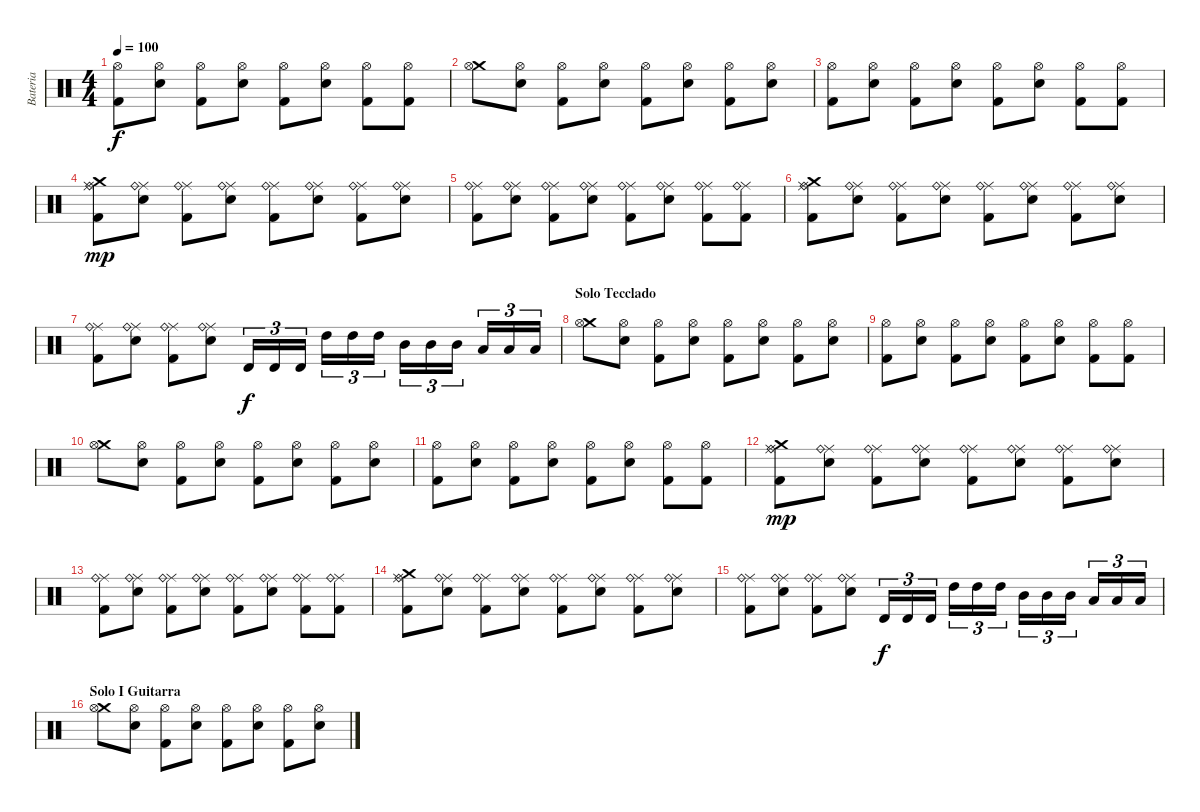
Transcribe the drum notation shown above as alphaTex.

\track ("Bateria" "Bateria") {instrument percussion}
\staff {score}
\articulation defaults
\ts (4 4)
\tempo 100
\clef neutral
\ks c
("Kick (hit) 2" "Hi-Hat (open)").8{dy f} ("Hi-Hat (open)" "Snare (hit) 2").8 ("Hi-Hat (open)" "Kick (hit) 2").8 ("Hi-Hat (open)" "Snare (hit) 2").8 ("Hi-Hat (open)" "Kick (hit) 2").8 ("Hi-Hat (open)" "Snare (hit) 2").8 ("Hi-Hat (open)" "Kick (hit) 2").8 ("Hi-Hat (open)" "Kick (hit) 2").8 |
("Crash medium (hit)" "Hi-Hat (open)").8 ("Hi-Hat (open)" "Snare (hit) 2").8 ("Hi-Hat (open)" "Kick (hit) 2").8 ("Hi-Hat (open)" "Snare (hit) 2").8 ("Hi-Hat (open)" "Kick (hit) 2").8 ("Hi-Hat (open)" "Snare (hit) 2").8 ("Hi-Hat (open)" "Kick (hit) 2").8 ("Hi-Hat (open)" "Snare (hit) 2").8 |
("Kick (hit) 2" "Hi-Hat (open)").8 ("Hi-Hat (open)" "Snare (hit) 2").8 ("Hi-Hat (open)" "Kick (hit) 2").8 ("Hi-Hat (open)" "Snare (hit) 2").8 ("Hi-Hat (open)" "Kick (hit) 2").8 ("Hi-Hat (open)" "Snare (hit) 2").8 ("Hi-Hat (open)" "Kick (hit) 2").8 ("Hi-Hat (open)" "Kick (hit) 2").8 |
("Crash medium (hit)" "Ride (middle)" "Kick (hit) 2" "Ride (bell)").8{dy mp} ("Ride (middle)" "Snare (hit) 2" "Ride (bell)").8 ("Ride (middle)" "Kick (hit) 2" "Ride (bell)").8 ("Ride (middle)" "Snare (hit) 2" "Ride (bell)").8 ("Ride (middle)" "Kick (hit) 2" "Ride (bell)").8 ("Ride (middle)" "Snare (hit) 2" "Ride (bell)").8 ("Ride (middle)" "Kick (hit) 2" "Ride (bell)").8 ("Ride (middle)" "Snare (hit) 2" "Ride (bell)").8 |
("Ride (middle)" "Kick (hit) 2" "Ride (bell)").8 ("Ride (middle)" "Snare (hit) 2" "Ride (bell)").8 ("Ride (middle)" "Kick (hit) 2" "Ride (bell)").8 ("Ride (middle)" "Snare (hit) 2" "Ride (bell)").8 ("Ride (middle)" "Kick (hit) 2" "Ride (bell)").8 ("Ride (middle)" "Snare (hit) 2" "Ride (bell)").8 ("Ride (middle)" "Kick (hit) 2" "Ride (bell)").8 ("Ride (middle)" "Kick (hit) 2" "Ride (bell)").8 |
("Crash medium (hit)" "Ride (middle)" "Kick (hit) 2" "Ride (bell)").8 ("Ride (middle)" "Snare (hit) 2" "Ride (bell)").8 ("Ride (middle)" "Kick (hit) 2" "Ride (bell)").8 ("Ride (middle)" "Snare (hit) 2" "Ride (bell)").8 ("Ride (middle)" "Kick (hit) 2" "Ride (bell)").8 ("Ride (middle)" "Snare (hit) 2" "Ride (bell)").8 ("Ride (middle)" "Kick (hit) 2" "Ride (bell)").8 ("Ride (middle)" "Snare (hit) 2" "Ride (bell)").8 |
("Ride (middle)" "Kick (hit) 2" "Ride (bell)").8 ("Ride (middle)" "Snare (hit) 2" "Ride (bell)").8 ("Ride (middle)" "Kick (hit) 2" "Ride (bell)").8 ("Ride (middle)" "Snare (hit) 2" "Ride (bell)").8 "Timbale high (hit)".16{tu (3 2) dy f} "Timbale high (hit)".16{tu (3 2)} "Timbale high (hit)".16{tu (3 2)} "High Tom (hit)".16{tu (3 2)} "High Tom (hit)".16{tu (3 2)} "High Tom (hit)".16{tu (3 2)} "Mid Tom (hit)".16{tu (3 2)} "Mid Tom (hit)".16{tu (3 2)} "Mid Tom (hit)".16{tu (3 2)} "Low Tom (hit)".16{tu (3 2)} "Low Tom (hit)".16{tu (3 2)} "Low Tom (hit)".16{tu (3 2)} |
\section ("" "Solo Tecclado ")
("Crash medium (hit)" "Hi-Hat (open)").8 ("Hi-Hat (open)" "Snare (hit) 2").8 ("Hi-Hat (open)" "Kick (hit) 2").8 ("Hi-Hat (open)" "Snare (hit) 2").8 ("Hi-Hat (open)" "Kick (hit) 2").8 ("Hi-Hat (open)" "Snare (hit) 2").8 ("Hi-Hat (open)" "Kick (hit) 2").8 ("Hi-Hat (open)" "Snare (hit) 2").8 |
("Kick (hit) 2" "Hi-Hat (open)").8 ("Hi-Hat (open)" "Snare (hit) 2").8 ("Hi-Hat (open)" "Kick (hit) 2").8 ("Hi-Hat (open)" "Snare (hit) 2").8 ("Hi-Hat (open)" "Kick (hit) 2").8 ("Hi-Hat (open)" "Snare (hit) 2").8 ("Hi-Hat (open)" "Kick (hit) 2").8 ("Hi-Hat (open)" "Kick (hit) 2").8 |
("Crash medium (hit)" "Hi-Hat (open)").8 ("Hi-Hat (open)" "Snare (hit) 2").8 ("Hi-Hat (open)" "Kick (hit) 2").8 ("Hi-Hat (open)" "Snare (hit) 2").8 ("Hi-Hat (open)" "Kick (hit) 2").8 ("Hi-Hat (open)" "Snare (hit) 2").8 ("Hi-Hat (open)" "Kick (hit) 2").8 ("Hi-Hat (open)" "Snare (hit) 2").8 |
("Kick (hit) 2" "Hi-Hat (open)").8 ("Hi-Hat (open)" "Snare (hit) 2").8 ("Hi-Hat (open)" "Kick (hit) 2").8 ("Hi-Hat (open)" "Snare (hit) 2").8 ("Hi-Hat (open)" "Kick (hit) 2").8 ("Hi-Hat (open)" "Snare (hit) 2").8 ("Hi-Hat (open)" "Kick (hit) 2").8 ("Hi-Hat (open)" "Kick (hit) 2").8 |
("Crash medium (hit)" "Ride (middle)" "Kick (hit) 2" "Ride (bell)").8{dy mp} ("Ride (middle)" "Snare (hit) 2" "Ride (bell)").8 ("Ride (middle)" "Kick (hit) 2" "Ride (bell)").8 ("Ride (middle)" "Snare (hit) 2" "Ride (bell)").8 ("Ride (middle)" "Kick (hit) 2" "Ride (bell)").8 ("Ride (middle)" "Snare (hit) 2" "Ride (bell)").8 ("Ride (middle)" "Kick (hit) 2" "Ride (bell)").8 ("Ride (middle)" "Snare (hit) 2" "Ride (bell)").8 |
("Ride (middle)" "Kick (hit) 2" "Ride (bell)").8 ("Ride (middle)" "Snare (hit) 2" "Ride (bell)").8 ("Ride (middle)" "Kick (hit) 2" "Ride (bell)").8 ("Ride (middle)" "Snare (hit) 2" "Ride (bell)").8 ("Ride (middle)" "Kick (hit) 2" "Ride (bell)").8 ("Ride (middle)" "Snare (hit) 2" "Ride (bell)").8 ("Ride (middle)" "Kick (hit) 2" "Ride (bell)").8 ("Ride (middle)" "Kick (hit) 2" "Ride (bell)").8 |
("Crash medium (hit)" "Ride (middle)" "Kick (hit) 2" "Ride (bell)").8 ("Ride (middle)" "Snare (hit) 2" "Ride (bell)").8 ("Ride (middle)" "Kick (hit) 2" "Ride (bell)").8 ("Ride (middle)" "Snare (hit) 2" "Ride (bell)").8 ("Ride (middle)" "Kick (hit) 2" "Ride (bell)").8 ("Ride (middle)" "Snare (hit) 2" "Ride (bell)").8 ("Ride (middle)" "Kick (hit) 2" "Ride (bell)").8 ("Ride (middle)" "Snare (hit) 2" "Ride (bell)").8 |
("Ride (middle)" "Kick (hit) 2" "Ride (bell)").8 ("Ride (middle)" "Snare (hit) 2" "Ride (bell)").8 ("Ride (middle)" "Kick (hit) 2" "Ride (bell)").8 ("Ride (middle)" "Snare (hit) 2" "Ride (bell)").8 "Timbale high (hit)".16{tu (3 2) dy f} "Timbale high (hit)".16{tu (3 2)} "Timbale high (hit)".16{tu (3 2)} "High Tom (hit)".16{tu (3 2)} "High Tom (hit)".16{tu (3 2)} "High Tom (hit)".16{tu (3 2)} "Mid Tom (hit)".16{tu (3 2)} "Mid Tom (hit)".16{tu (3 2)} "Mid Tom (hit)".16{tu (3 2)} "Low Tom (hit)".16{tu (3 2)} "Low Tom (hit)".16{tu (3 2)} "Low Tom (hit)".16{tu (3 2)} |
\section ("" "Solo I Guitarra")
("Crash medium (hit)" "Hi-Hat (open)").8 ("Hi-Hat (open)" "Snare (hit) 2").8 ("Hi-Hat (open)" "Kick (hit) 2").8 ("Hi-Hat (open)" "Snare (hit) 2").8 ("Hi-Hat (open)" "Kick (hit) 2").8 ("Hi-Hat (open)" "Snare (hit) 2").8 ("Hi-Hat (open)" "Kick (hit) 2").8 ("Hi-Hat (open)" "Snare (hit) 2").8
